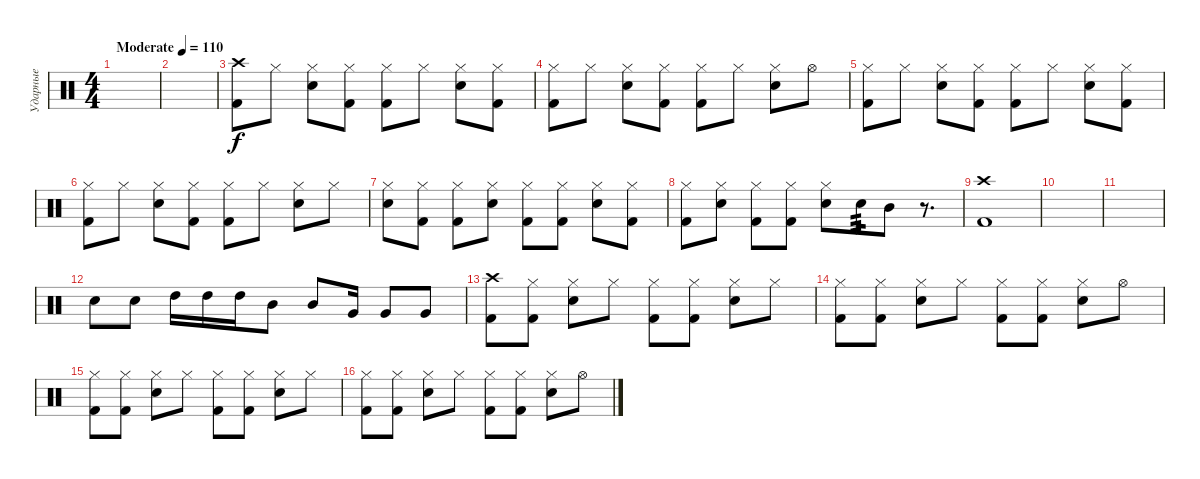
\track ("Ударные" "Ударные") {instrument percussion}
\staff {score}
\articulation defaults
\ts (4 4)
\tempo (110 "Moderate")
\clef neutral
\ks c
|
|
("Kick (hit) 2" "Crash high (hit)").8 "Hi-Hat (closed)".8 ("Snare (hit) 2" "Hi-Hat (closed)").8 ("Kick (hit) 2" "Hi-Hat (closed)").8 ("Kick (hit) 2" "Hi-Hat (closed)").8 "Hi-Hat (closed)".8 ("Snare (hit) 2" "Hi-Hat (closed)").8 ("Kick (hit) 2" "Hi-Hat (closed)").8 |
("Kick (hit) 2" "Hi-Hat (closed)").8 "Hi-Hat (closed)".8 ("Snare (hit) 2" "Hi-Hat (closed)").8 ("Kick (hit) 2" "Hi-Hat (closed)").8 ("Kick (hit) 2" "Hi-Hat (closed)").8 "Hi-Hat (closed)".8 ("Snare (hit) 2" "Hi-Hat (closed)").8 "Hi-Hat (open)".8 |
("Kick (hit) 2" "Hi-Hat (closed)").8 "Hi-Hat (closed)".8 ("Snare (hit) 2" "Hi-Hat (closed)").8 ("Kick (hit) 2" "Hi-Hat (closed)").8 ("Kick (hit) 2" "Hi-Hat (closed)").8 "Hi-Hat (closed)".8 ("Snare (hit) 2" "Hi-Hat (closed)").8 ("Kick (hit) 2" "Hi-Hat (closed)").8 |
("Kick (hit) 2" "Hi-Hat (closed)").8 "Hi-Hat (closed)".8 ("Snare (hit) 2" "Hi-Hat (closed)").8 ("Kick (hit) 2" "Hi-Hat (closed)").8 ("Kick (hit) 2" "Hi-Hat (closed)").8 "Hi-Hat (closed)".8 ("Snare (hit) 2" "Hi-Hat (closed)").8 "Hi-Hat (closed)".8 |
("Snare (hit) 2" "Hi-Hat (closed)").8 ("Kick (hit) 2" "Hi-Hat (closed)").8 ("Kick (hit) 2" "Hi-Hat (closed)").8 ("Snare (hit) 2" "Hi-Hat (closed)").8 ("Kick (hit) 2" "Hi-Hat (closed)").8 ("Kick (hit) 2" "Hi-Hat (closed)").8 ("Snare (hit) 2" "Hi-Hat (closed)").8 ("Kick (hit) 2" "Hi-Hat (closed)").8 |
("Kick (hit) 2" "Hi-Hat (closed)").8 ("Snare (hit) 2" "Hi-Hat (closed)").8 ("Kick (hit) 2" "Hi-Hat (closed)").8 ("Kick (hit) 2" "Hi-Hat (closed)").8 ("Snare (hit) 2" "Hi-Hat (closed)").8 "Snare (hit) 2".16{tp 3} "Mid Tom (hit)".8 r.8{d} |
("Crash high (hit)" "Kick (hit) 2").1 |
|
|
"Snare (hit) 2".8 "Snare (hit) 2".8 "High Tom (hit)".16 "High Tom (hit)".16 "High Tom (hit)".16 "Mid Tom (hit)".8 "Mid Tom (hit)".8 "Very Low Tom (hit)".16 "Very Low Tom (hit)".8 "Very Low Tom (hit)".8 |
("Crash high (hit)" "Kick (hit) 2").8 ("Kick (hit) 2" "Hi-Hat (closed)").8 ("Snare (hit) 2" "Hi-Hat (closed)").8 "Hi-Hat (closed)".8 ("Kick (hit) 2" "Hi-Hat (closed)").8 ("Kick (hit) 2" "Hi-Hat (closed)").8 ("Snare (hit) 2" "Hi-Hat (closed)").8 "Hi-Hat (closed)".8 |
("Kick (hit) 2" "Hi-Hat (closed)").8 ("Kick (hit) 2" "Hi-Hat (closed)").8 ("Snare (hit) 2" "Hi-Hat (closed)").8 "Hi-Hat (closed)".8 ("Kick (hit) 2" "Hi-Hat (closed)").8 ("Kick (hit) 2" "Hi-Hat (closed)").8 ("Snare (hit) 2" "Hi-Hat (closed)").8 "Hi-Hat (open)".8 |
("Kick (hit) 2" "Hi-Hat (closed)").8 ("Kick (hit) 2" "Hi-Hat (closed)").8 ("Snare (hit) 2" "Hi-Hat (closed)").8 "Hi-Hat (closed)".8 ("Kick (hit) 2" "Hi-Hat (closed)").8 ("Kick (hit) 2" "Hi-Hat (closed)").8 ("Snare (hit) 2" "Hi-Hat (closed)").8 "Hi-Hat (closed)".8 |
("Kick (hit) 2" "Hi-Hat (closed)").8 ("Kick (hit) 2" "Hi-Hat (closed)").8 ("Snare (hit) 2" "Hi-Hat (closed)").8 "Hi-Hat (closed)".8 ("Kick (hit) 2" "Hi-Hat (closed)").8 ("Kick (hit) 2" "Hi-Hat (closed)").8 ("Snare (hit) 2" "Hi-Hat (closed)").8 "Hi-Hat (open)".8
